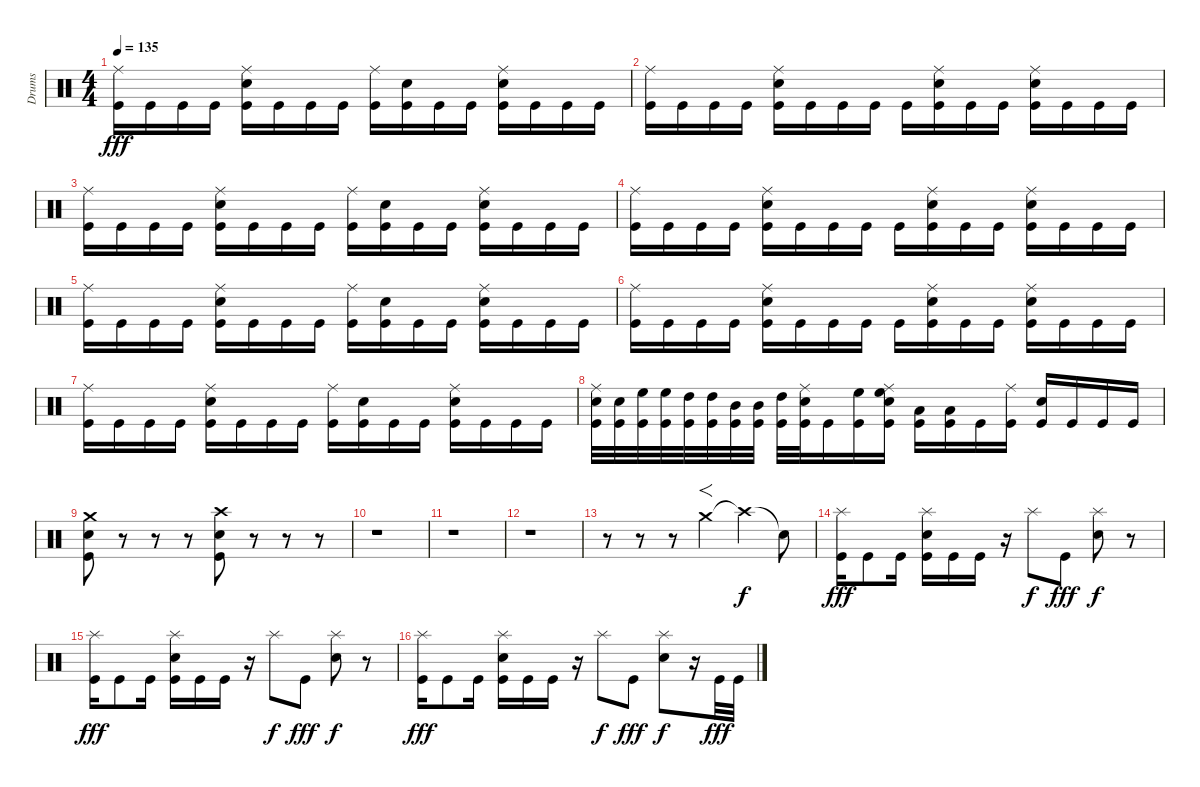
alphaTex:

\track ("Drums" "Drums") {instrument percussion}
\staff {score}
\articulation defaults
\ts (4 4)
\tempo 135
\clef neutral
\ks c
("Ride (middle)" "Kick (hit)").16{dy fff} "Kick (hit)".16 "Kick (hit)".16 "Kick (hit)".16 ("Ride (middle)" "Electric Snare (hit)" "Kick (hit)").16 "Kick (hit)".16 "Kick (hit)".16 "Kick (hit)".16 ("Ride (middle)" "Kick (hit)").16 ("Electric Snare (hit)" "Kick (hit)").16 "Kick (hit)".16 "Kick (hit)".16 ("Ride (middle)" "Electric Snare (hit)" "Kick (hit)").16 "Kick (hit)".16 "Kick (hit)".16 "Kick (hit)".16 |
("Ride (middle)" "Kick (hit)").16 "Kick (hit)".16 "Kick (hit)".16 "Kick (hit)".16 ("Ride (middle)" "Electric Snare (hit)" "Kick (hit)").16 "Kick (hit)".16 "Kick (hit)".16 "Kick (hit)".16 "Kick (hit)".16 ("Ride (middle)" "Electric Snare (hit)" "Kick (hit)").16 "Kick (hit)".16 "Kick (hit)".16 ("Ride (middle)" "Electric Snare (hit)" "Kick (hit)").16 "Kick (hit)".16 "Kick (hit)".16 "Kick (hit)".16 |
("Ride (middle)" "Kick (hit)").16 "Kick (hit)".16 "Kick (hit)".16 "Kick (hit)".16 ("Ride (middle)" "Electric Snare (hit)" "Kick (hit)").16 "Kick (hit)".16 "Kick (hit)".16 "Kick (hit)".16 ("Ride (middle)" "Kick (hit)").16 ("Electric Snare (hit)" "Kick (hit)").16 "Kick (hit)".16 "Kick (hit)".16 ("Ride (middle)" "Electric Snare (hit)" "Kick (hit)").16 "Kick (hit)".16 "Kick (hit)".16 "Kick (hit)".16 |
("Ride (middle)" "Kick (hit)").16 "Kick (hit)".16 "Kick (hit)".16 "Kick (hit)".16 ("Ride (middle)" "Electric Snare (hit)" "Kick (hit)").16 "Kick (hit)".16 "Kick (hit)".16 "Kick (hit)".16 "Kick (hit)".16 ("Ride (middle)" "Electric Snare (hit)" "Kick (hit)").16 "Kick (hit)".16 "Kick (hit)".16 ("Ride (middle)" "Electric Snare (hit)" "Kick (hit)").16 "Kick (hit)".16 "Kick (hit)".16 "Kick (hit)".16 |
("Ride (middle)" "Kick (hit)").16 "Kick (hit)".16 "Kick (hit)".16 "Kick (hit)".16 ("Ride (middle)" "Electric Snare (hit)" "Kick (hit)").16 "Kick (hit)".16 "Kick (hit)".16 "Kick (hit)".16 ("Ride (middle)" "Kick (hit)").16 ("Electric Snare (hit)" "Kick (hit)").16 "Kick (hit)".16 "Kick (hit)".16 ("Ride (middle)" "Electric Snare (hit)" "Kick (hit)").16 "Kick (hit)".16 "Kick (hit)".16 "Kick (hit)".16 |
("Ride (middle)" "Kick (hit)").16 "Kick (hit)".16 "Kick (hit)".16 "Kick (hit)".16 ("Ride (middle)" "Electric Snare (hit)" "Kick (hit)").16 "Kick (hit)".16 "Kick (hit)".16 "Kick (hit)".16 "Kick (hit)".16 ("Ride (middle)" "Electric Snare (hit)" "Kick (hit)").16 "Kick (hit)".16 "Kick (hit)".16 ("Ride (middle)" "Electric Snare (hit)" "Kick (hit)").16 "Kick (hit)".16 "Kick (hit)".16 "Kick (hit)".16 |
("Ride (middle)" "Kick (hit)").16 "Kick (hit)".16 "Kick (hit)".16 "Kick (hit)".16 ("Ride (middle)" "Electric Snare (hit)" "Kick (hit)").16 "Kick (hit)".16 "Kick (hit)".16 "Kick (hit)".16 ("Ride (middle)" "Kick (hit)").16 ("Electric Snare (hit)" "Kick (hit)").16 "Kick (hit)".16 "Kick (hit)".16 ("Ride (middle)" "Electric Snare (hit)" "Kick (hit)").16 "Kick (hit)".16 "Kick (hit)".16 "Kick (hit)".16 |
("Electric Snare (hit)" "Ride (middle)" "Kick (hit)").32 ("Electric Snare (hit)" "Kick (hit)").32 ("High Floor Tom (hit)" "Kick (hit)").32 ("High Floor Tom (hit)" "Kick (hit)").32 ("High Tom (hit)" "Kick (hit)").32 ("High Tom (hit)" "Kick (hit)").32 ("Mid Tom (hit)" "Kick (hit)").32 ("Mid Tom (hit)" "Kick (hit)").32 ("High Tom (hit)" "Kick (hit)").32 ("Ride (middle)" "Electric Snare (hit)" "Kick (hit)").32 "Kick (hit)".16 ("High Floor Tom (hit)" "Kick (hit)").16 ("High Floor Tom (hit)" "Ride (middle)" "Electric Snare (hit)" "Kick (hit)").16 ("Low Tom (hit)" "Kick (hit)").16 ("Low Tom (hit)" "Kick (hit)").16 "Kick (hit)".16 ("Ride (middle)" "Kick (hit)").16 ("Electric Snare (hit)" "Kick (hit)").16 "Kick (hit)".16 "Kick (hit)".16 "Kick (hit)".16 |
("Crash medium (hit)" "Electric Snare (hit)" "Kick (hit)").8 r.8 r.8 r.8 ("Crash high (hit)" "Electric Snare (hit)" "Kick (hit)").8 r.8 r.8 r.8 |
r.1 |
r.1 |
r.1 |
r.8 r.8 r.8 "Crash medium (hit)".4{f} "Crash high (hit)"{t}.4{dy f} "Snare (hit)"{t}.8 |
("Splash (hit)" "Kick (hit)").16{dy fff} "Kick (hit)".8 "Kick (hit)".16 ("Splash (hit)" "Electric Snare (hit)" "Kick (hit)").16 "Kick (hit)".16 "Kick (hit)".16 r.16 "Splash (hit)".8{dy f} "Kick (hit)".8{dy fff} ("Splash (hit)" "Electric Snare (hit)").8{dy f} r.8 |
("Splash (hit)" "Kick (hit)").16{dy fff} "Kick (hit)".8 "Kick (hit)".16 ("Splash (hit)" "Electric Snare (hit)" "Kick (hit)").16 "Kick (hit)".16 "Kick (hit)".16 r.16 "Splash (hit)".8{dy f} "Kick (hit)".8{dy fff} ("Splash (hit)" "Electric Snare (hit)").8{dy f} r.8 |
("Splash (hit)" "Kick (hit)").16{dy fff} "Kick (hit)".8 "Kick (hit)".16 ("Splash (hit)" "Electric Snare (hit)" "Kick (hit)").16 "Kick (hit)".16 "Kick (hit)".16 r.16 "Splash (hit)".8{dy f} "Kick (hit)".8{dy fff} ("Splash (hit)" "Electric Snare (hit)").8{dy f} r.16 "Kick (hit)".32{dy fff} "Kick (hit)".32
